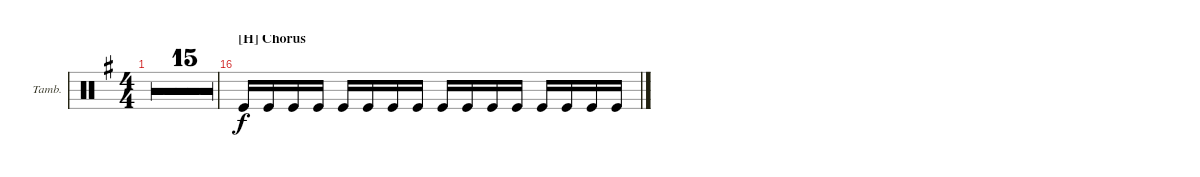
\defaultSystemsLayout 4
\bracketExtendMode groupsimilarinstruments
\firstSystemTrackNameOrientation horizontal
\otherSystemsTrackNameOrientation horizontal
\track ("Tambourine" "Tamb.") {multiBarRest instrument percussion}
\staff {score}
\articulation defaults
\ts (4 4)
\tempo 98
\clef neutral
\ks g
r.1{dy f} |
r.1 |
r.1 |
r.1 |
r.1 |
r.1 |
r.1 |
r.1 |
r.1 |
r.1 |
r.1 |
r.1 |
r.1 |
r.1 |
r.1 |
\section ("H" "Chorus")
"Kick (hit)".16 "Kick (hit)".16 "Kick (hit)".16 "Kick (hit)".16 "Kick (hit)".16 "Kick (hit)".16 "Kick (hit)".16 "Kick (hit)".16 "Kick (hit)".16 "Kick (hit)".16 "Kick (hit)".16 "Kick (hit)".16 "Kick (hit)".16 "Kick (hit)".16 "Kick (hit)".16 "Kick (hit)".16
